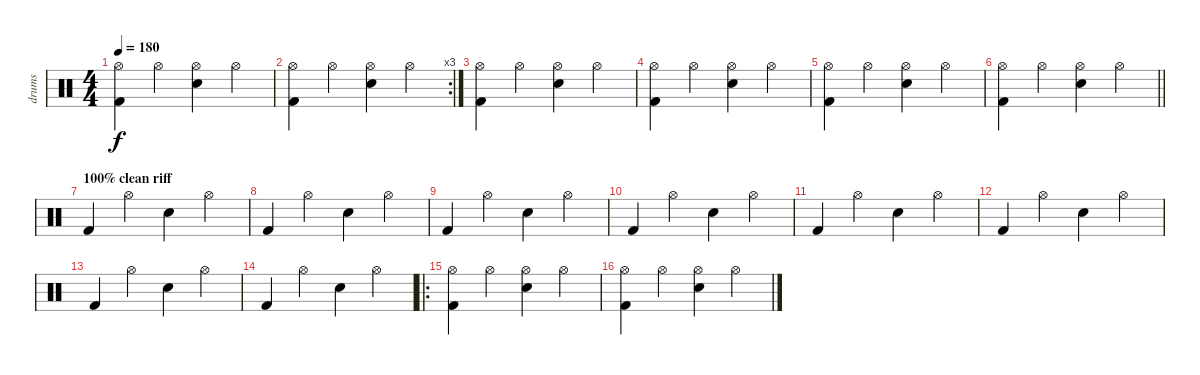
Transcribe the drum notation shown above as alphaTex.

\track ("drums" "drums") {instrument percussion}
\staff {score}
\articulation defaults
\ts (4 4)
\tempo 180
\clef neutral
\ks c
("Hi-Hat (open)" "Kick (hit) 2").4{dy f} "Hi-Hat (open)".4 ("Hi-Hat (open)" "Snare (hit) 2").4 "Hi-Hat (open)".4 |
\rc 3
("Hi-Hat (open)" "Kick (hit) 2").4 "Hi-Hat (open)".4 ("Hi-Hat (open)" "Snare (hit) 2").4 "Hi-Hat (open)".4 |
("Hi-Hat (open)" "Kick (hit) 2").4 "Hi-Hat (open)".4 ("Hi-Hat (open)" "Snare (hit) 2").4 "Hi-Hat (open)".4 |
("Hi-Hat (open)" "Kick (hit) 2").4 "Hi-Hat (open)".4 ("Hi-Hat (open)" "Snare (hit) 2").4 "Hi-Hat (open)".4 |
("Hi-Hat (open)" "Kick (hit) 2").4 "Hi-Hat (open)".4 ("Hi-Hat (open)" "Snare (hit) 2").4 "Hi-Hat (open)".4 |
\barLineRight lightlight
("Hi-Hat (open)" "Kick (hit) 2").4 "Hi-Hat (open)".4 ("Hi-Hat (open)" "Snare (hit) 2").4 "Hi-Hat (open)".4 |
\section ("" "100% clean riff")
"Kick (hit) 2".4 "Hi-Hat (open)".4 "Snare (hit) 2".4 "Hi-Hat (open)".4 |
"Kick (hit) 2".4 "Hi-Hat (open)".4 "Snare (hit) 2".4 "Hi-Hat (open)".4 |
"Kick (hit) 2".4 "Hi-Hat (open)".4 "Snare (hit) 2".4 "Hi-Hat (open)".4 |
"Kick (hit) 2".4 "Hi-Hat (open)".4 "Snare (hit) 2".4 "Hi-Hat (open)".4 |
"Kick (hit) 2".4 "Hi-Hat (open)".4 "Snare (hit) 2".4 "Hi-Hat (open)".4 |
"Kick (hit) 2".4 "Hi-Hat (open)".4 "Snare (hit) 2".4 "Hi-Hat (open)".4 |
"Kick (hit) 2".4 "Hi-Hat (open)".4 "Snare (hit) 2".4 "Hi-Hat (open)".4 |
"Kick (hit) 2".4 "Hi-Hat (open)".4 "Snare (hit) 2".4 "Hi-Hat (open)".4 |
\ro
("Hi-Hat (open)" "Kick (hit) 2").4 "Hi-Hat (open)".4 ("Hi-Hat (open)" "Snare (hit) 2").4 "Hi-Hat (open)".4 |
("Hi-Hat (open)" "Kick (hit) 2").4 "Hi-Hat (open)".4 ("Hi-Hat (open)" "Snare (hit) 2").4 "Hi-Hat (open)".4
